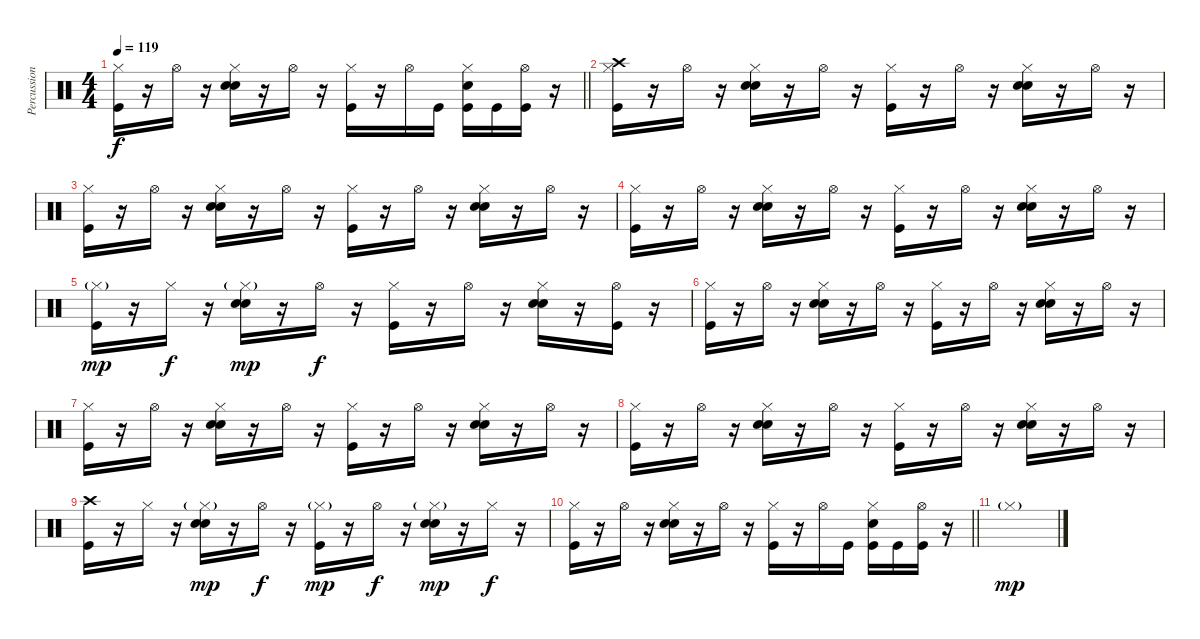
\track ("Percussion" "Percussion") {instrument percussion}
\staff {score}
\articulation defaults
\ts (4 4)
\tempo 119
\clef neutral
\barLineRight lightlight
\ks c
("Hi-Hat (closed)" "Kick (hit)").16{dy f} r.16 "Hi-Hat (open)".16 r.16 ("Hi-Hat (closed)" "Hand Clap (hit)" "Snare (hit) 2").16 r.16 "Hi-Hat (open)".16 r.16 ("Hi-Hat (closed)" "Kick (hit)").16 r.16 "Hi-Hat (open)".16 "Kick (hit)".16 ("Hi-Hat (closed)" "Hand Clap (hit)" "Kick (hit)").16 "Kick (hit)".16 ("Hi-Hat (open)" "Kick (hit)").16 r.16 |
("Crash high (hit)" "Hi-Hat (closed)" "Kick (hit)").16 r.16 "Hi-Hat (open)".16 r.16 ("Hi-Hat (closed)" "Hand Clap (hit)" "Snare (hit) 2").16 r.16 "Hi-Hat (open)".16 r.16 ("Hi-Hat (closed)" "Kick (hit)").16 r.16 "Hi-Hat (open)".16 r.16 ("Hi-Hat (closed)" "Hand Clap (hit)" "Snare (hit) 2").16 r.16 "Hi-Hat (open)".16 r.16 |
("Hi-Hat (closed)" "Kick (hit)").16 r.16 "Hi-Hat (open)".16 r.16 ("Hi-Hat (closed)" "Hand Clap (hit)" "Snare (hit) 2").16 r.16 "Hi-Hat (open)".16 r.16 ("Hi-Hat (closed)" "Kick (hit)").16 r.16 "Hi-Hat (open)".16 r.16 ("Hi-Hat (closed)" "Hand Clap (hit)" "Snare (hit) 2").16 r.16 "Hi-Hat (open)".16 r.16 |
("Hi-Hat (closed)" "Kick (hit)").16 r.16 "Hi-Hat (open)".16 r.16 ("Hi-Hat (closed)" "Hand Clap (hit)" "Snare (hit) 2").16 r.16 "Hi-Hat (open)".16 r.16 ("Hi-Hat (closed)" "Kick (hit)").16 r.16 "Hi-Hat (open)".16 r.16 ("Hi-Hat (closed)" "Hand Clap (hit)" "Snare (hit) 2").16 r.16 "Hi-Hat (open)".16 r.16 |
("Hi-Hat (closed)"{g} "Kick (hit)").16{dy mp} r.16 "Hi-Hat (closed)".16{dy f} r.16 ("Hi-Hat (closed)"{g} "Hand Clap (hit)" "Snare (hit) 2").16{dy mp} r.16 "Hi-Hat (open)".16{dy f} r.16 ("Hi-Hat (closed)" "Kick (hit)").16 r.16 "Hi-Hat (open)".16 r.16 ("Hi-Hat (closed)" "Hand Clap (hit)" "Snare (hit) 2").16 r.16 ("Hi-Hat (open)" "Kick (hit)").16 r.16 |
("Hi-Hat (closed)" "Kick (hit)").16 r.16 "Hi-Hat (open)".16 r.16 ("Hi-Hat (closed)" "Hand Clap (hit)" "Snare (hit) 2").16 r.16 "Hi-Hat (open)".16 r.16 ("Hi-Hat (closed)" "Kick (hit)").16 r.16 "Hi-Hat (open)".16 r.16 ("Hi-Hat (closed)" "Hand Clap (hit)" "Snare (hit) 2").16 r.16 "Hi-Hat (open)".16 r.16 |
("Hi-Hat (closed)" "Kick (hit)").16 r.16 "Hi-Hat (open)".16 r.16 ("Hi-Hat (closed)" "Hand Clap (hit)" "Snare (hit) 2").16 r.16 "Hi-Hat (open)".16 r.16 ("Hi-Hat (closed)" "Kick (hit)").16 r.16 "Hi-Hat (open)".16 r.16 ("Hi-Hat (closed)" "Hand Clap (hit)" "Snare (hit) 2").16 r.16 "Hi-Hat (open)".16 r.16 |
("Hi-Hat (closed)" "Kick (hit)").16 r.16 "Hi-Hat (open)".16 r.16 ("Hi-Hat (closed)" "Hand Clap (hit)" "Snare (hit) 2").16 r.16 "Hi-Hat (open)".16 r.16 ("Hi-Hat (closed)" "Kick (hit)").16 r.16 "Hi-Hat (open)".16 r.16 ("Hi-Hat (closed)" "Hand Clap (hit)" "Snare (hit) 2").16 r.16 "Hi-Hat (open)".16 r.16 |
("Crash high (hit)" "Kick (hit)").16 r.16 "Hi-Hat (closed)".16 r.16 ("Hi-Hat (closed)"{g} "Hand Clap (hit)" "Snare (hit) 2").16{dy mp} r.16 "Hi-Hat (open)".16{dy f} r.16 ("Hi-Hat (closed)"{g} "Kick (hit)").16{dy mp} r.16 "Hi-Hat (open)".16{dy f} r.16 ("Hi-Hat (closed)"{g} "Hand Clap (hit)" "Snare (hit) 2").16{dy mp} r.16 "Hi-Hat (closed)".16{dy f} r.16 |
\barLineRight lightlight
("Hi-Hat (closed)" "Kick (hit)").16 r.16 "Hi-Hat (open)".16 r.16 ("Hi-Hat (closed)" "Hand Clap (hit)" "Snare (hit) 2").16 r.16 "Hi-Hat (open)".16 r.16 ("Hi-Hat (closed)" "Kick (hit)").16 r.16 "Hi-Hat (open)".16 "Kick (hit)".16 ("Hi-Hat (closed)" "Hand Clap (hit)" "Kick (hit)").16 "Kick (hit)".16 ("Hi-Hat (open)" "Kick (hit)").16 r.16 |
"Hi-Hat (closed)"{g}.1{dy mp}
